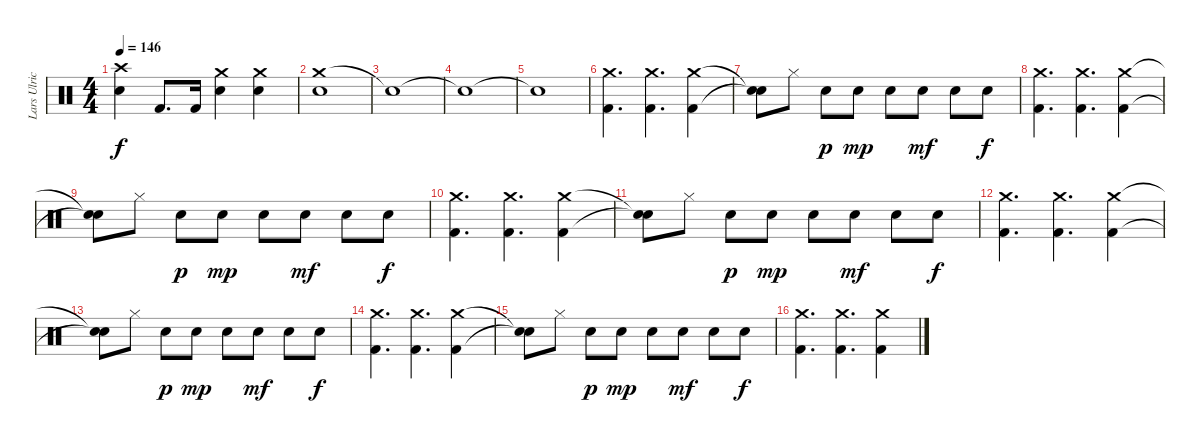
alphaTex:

\track ("Lars Ulrich" "Lars Ulric") {instrument percussion}
\staff {score}
\articulation defaults
\ts (4 4)
\tempo 146
\clef neutral
\ks c
("Crash high (hit)" "Electric Snare (hit)").4{dy f} "Kick (hit) 2".8{d} "Kick (hit) 2".16 ("Crash medium (hit)" "Electric Snare (hit)").4 ("Crash medium (hit)" "Electric Snare (hit)").4 |
("Crash medium (hit)" "Electric Snare (hit)").1 |
"Snare (hit)"{t}.1 |
"Snare (hit)"{t}.1 |
"Snare (hit)"{t}.1 |
("Crash medium (hit)" "Kick (hit) 2").4{d} ("Crash medium (hit)" "Kick (hit) 2").4{d} ("Crash medium (hit)" "Kick (hit) 2").4 |
("Snare (hit)"{t} "Snare (hit)"{t}).8 "Hi-Hat (closed)".8 "Electric Snare (hit)".8{dy p} "Electric Snare (hit)".8{dy mp} "Electric Snare (hit)".8 "Electric Snare (hit)".8{dy mf} "Electric Snare (hit)".8 "Electric Snare (hit)".8{dy f} |
("Crash medium (hit)" "Kick (hit) 2").4{d} ("Crash medium (hit)" "Kick (hit) 2").4{d} ("Crash medium (hit)" "Kick (hit) 2").4 |
("Snare (hit)"{t} "Snare (hit)"{t}).8 "Hi-Hat (closed)".8 "Electric Snare (hit)".8{dy p} "Electric Snare (hit)".8{dy mp} "Electric Snare (hit)".8 "Electric Snare (hit)".8{dy mf} "Electric Snare (hit)".8 "Electric Snare (hit)".8{dy f} |
("Crash medium (hit)" "Kick (hit) 2").4{d} ("Crash medium (hit)" "Kick (hit) 2").4{d} ("Crash medium (hit)" "Kick (hit) 2").4 |
("Snare (hit)"{t} "Snare (hit)"{t}).8 "Hi-Hat (closed)".8 "Electric Snare (hit)".8{dy p} "Electric Snare (hit)".8{dy mp} "Electric Snare (hit)".8 "Electric Snare (hit)".8{dy mf} "Electric Snare (hit)".8 "Electric Snare (hit)".8{dy f} |
("Crash medium (hit)" "Kick (hit) 2").4{d} ("Crash medium (hit)" "Kick (hit) 2").4{d} ("Crash medium (hit)" "Kick (hit) 2").4 |
("Snare (hit)"{t} "Snare (hit)"{t}).8 "Hi-Hat (closed)".8 "Electric Snare (hit)".8{dy p} "Electric Snare (hit)".8{dy mp} "Electric Snare (hit)".8 "Electric Snare (hit)".8{dy mf} "Electric Snare (hit)".8 "Electric Snare (hit)".8{dy f} |
("Crash medium (hit)" "Kick (hit) 2").4{d} ("Crash medium (hit)" "Kick (hit) 2").4{d} ("Crash medium (hit)" "Kick (hit) 2").4 |
("Snare (hit)"{t} "Snare (hit)"{t}).8 "Hi-Hat (closed)".8 "Electric Snare (hit)".8{dy p} "Electric Snare (hit)".8{dy mp} "Electric Snare (hit)".8 "Electric Snare (hit)".8{dy mf} "Electric Snare (hit)".8 "Electric Snare (hit)".8{dy f} |
("Crash medium (hit)" "Kick (hit) 2").4{d} ("Crash medium (hit)" "Kick (hit) 2").4{d} ("Crash medium (hit)" "Kick (hit) 2").4
